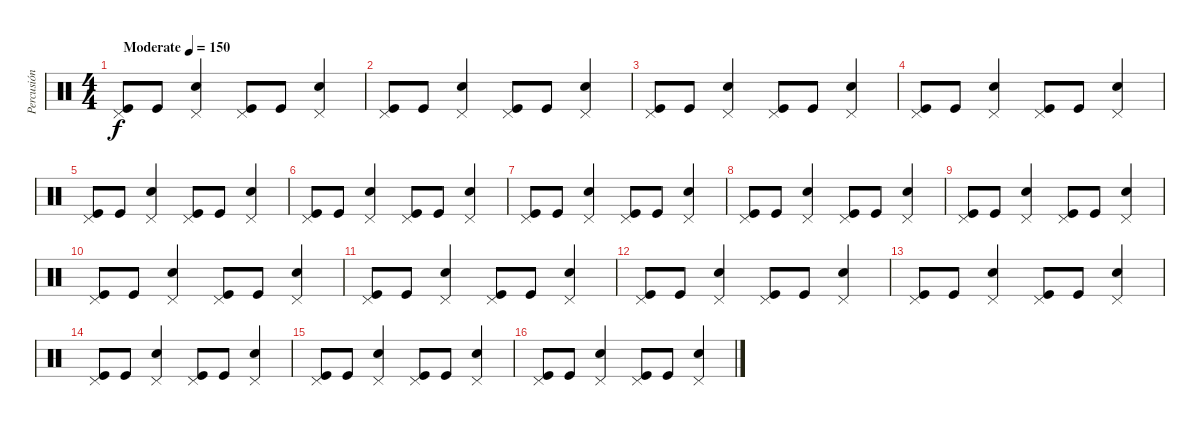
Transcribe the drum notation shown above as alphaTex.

\track ("Percusión" "Percusión") {instrument percussion}
\staff {score}
\articulation defaults
\ts (4 4)
\tempo (150 "Moderate")
\clef neutral
\ks c
("Pedal Hi-Hat (hit)" "Kick (hit)").8{dy f} "Kick (hit)".8 ("Pedal Hi-Hat (hit)" "Snare (hit) 2").4 ("Pedal Hi-Hat (hit)" "Kick (hit)").8 "Kick (hit)".8 ("Pedal Hi-Hat (hit)" "Snare (hit) 2").4 |
("Pedal Hi-Hat (hit)" "Kick (hit)").8 "Kick (hit)".8 ("Pedal Hi-Hat (hit)" "Snare (hit) 2").4 ("Pedal Hi-Hat (hit)" "Kick (hit)").8 "Kick (hit)".8 ("Pedal Hi-Hat (hit)" "Snare (hit) 2").4 |
("Pedal Hi-Hat (hit)" "Kick (hit)").8 "Kick (hit)".8 ("Pedal Hi-Hat (hit)" "Snare (hit) 2").4 ("Pedal Hi-Hat (hit)" "Kick (hit)").8 "Kick (hit)".8 ("Pedal Hi-Hat (hit)" "Snare (hit) 2").4 |
("Pedal Hi-Hat (hit)" "Kick (hit)").8 "Kick (hit)".8 ("Pedal Hi-Hat (hit)" "Snare (hit) 2").4 ("Pedal Hi-Hat (hit)" "Kick (hit)").8 "Kick (hit)".8 ("Pedal Hi-Hat (hit)" "Snare (hit) 2").4 |
("Pedal Hi-Hat (hit)" "Kick (hit)").8 "Kick (hit)".8 ("Pedal Hi-Hat (hit)" "Snare (hit) 2").4 ("Pedal Hi-Hat (hit)" "Kick (hit)").8 "Kick (hit)".8 ("Pedal Hi-Hat (hit)" "Snare (hit) 2").4 |
("Pedal Hi-Hat (hit)" "Kick (hit)").8 "Kick (hit)".8 ("Pedal Hi-Hat (hit)" "Snare (hit) 2").4 ("Pedal Hi-Hat (hit)" "Kick (hit)").8 "Kick (hit)".8 ("Pedal Hi-Hat (hit)" "Snare (hit) 2").4 |
("Pedal Hi-Hat (hit)" "Kick (hit)").8 "Kick (hit)".8 ("Pedal Hi-Hat (hit)" "Snare (hit) 2").4 ("Pedal Hi-Hat (hit)" "Kick (hit)").8 "Kick (hit)".8 ("Pedal Hi-Hat (hit)" "Snare (hit) 2").4 |
("Pedal Hi-Hat (hit)" "Kick (hit)").8 "Kick (hit)".8 ("Pedal Hi-Hat (hit)" "Snare (hit) 2").4 ("Pedal Hi-Hat (hit)" "Kick (hit)").8 "Kick (hit)".8 ("Pedal Hi-Hat (hit)" "Snare (hit) 2").4 |
("Pedal Hi-Hat (hit)" "Kick (hit)").8 "Kick (hit)".8 ("Pedal Hi-Hat (hit)" "Snare (hit) 2").4 ("Pedal Hi-Hat (hit)" "Kick (hit)").8 "Kick (hit)".8 ("Pedal Hi-Hat (hit)" "Snare (hit) 2").4 |
("Pedal Hi-Hat (hit)" "Kick (hit)").8 "Kick (hit)".8 ("Pedal Hi-Hat (hit)" "Snare (hit) 2").4 ("Pedal Hi-Hat (hit)" "Kick (hit)").8 "Kick (hit)".8 ("Pedal Hi-Hat (hit)" "Snare (hit) 2").4 |
("Pedal Hi-Hat (hit)" "Kick (hit)").8 "Kick (hit)".8 ("Pedal Hi-Hat (hit)" "Snare (hit) 2").4 ("Pedal Hi-Hat (hit)" "Kick (hit)").8 "Kick (hit)".8 ("Pedal Hi-Hat (hit)" "Snare (hit) 2").4 |
("Pedal Hi-Hat (hit)" "Kick (hit)").8 "Kick (hit)".8 ("Pedal Hi-Hat (hit)" "Snare (hit) 2").4 ("Pedal Hi-Hat (hit)" "Kick (hit)").8 "Kick (hit)".8 ("Pedal Hi-Hat (hit)" "Snare (hit) 2").4 |
("Pedal Hi-Hat (hit)" "Kick (hit)").8 "Kick (hit)".8 ("Pedal Hi-Hat (hit)" "Snare (hit) 2").4 ("Pedal Hi-Hat (hit)" "Kick (hit)").8 "Kick (hit)".8 ("Pedal Hi-Hat (hit)" "Snare (hit) 2").4 |
("Pedal Hi-Hat (hit)" "Kick (hit)").8 "Kick (hit)".8 ("Pedal Hi-Hat (hit)" "Snare (hit) 2").4 ("Pedal Hi-Hat (hit)" "Kick (hit)").8 "Kick (hit)".8 ("Pedal Hi-Hat (hit)" "Snare (hit) 2").4 |
("Pedal Hi-Hat (hit)" "Kick (hit)").8 "Kick (hit)".8 ("Pedal Hi-Hat (hit)" "Snare (hit) 2").4 ("Pedal Hi-Hat (hit)" "Kick (hit)").8 "Kick (hit)".8 ("Pedal Hi-Hat (hit)" "Snare (hit) 2").4 |
("Pedal Hi-Hat (hit)" "Kick (hit)").8 "Kick (hit)".8 ("Pedal Hi-Hat (hit)" "Snare (hit) 2").4 ("Pedal Hi-Hat (hit)" "Kick (hit)").8 "Kick (hit)".8 ("Pedal Hi-Hat (hit)" "Snare (hit) 2").4
